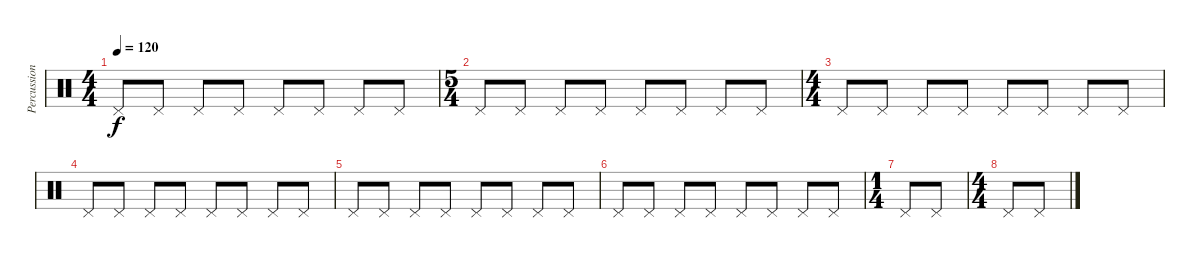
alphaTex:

\track ("Percussions" "Percussion") {instrument percussion}
\staff {score}
\articulation defaults
\ts (4 4)
\tempo 120
\clef neutral
\ks c "Pedal Hi-Hat (hit)".8{dy f} "Pedal Hi-Hat (hit)".8 "Pedal Hi-Hat (hit)".8 "Pedal Hi-Hat (hit)".8 "Pedal Hi-Hat (hit)".8 "Pedal Hi-Hat (hit)".8 "Pedal Hi-Hat (hit)".8 "Pedal Hi-Hat (hit)".8
|
\ts (5 4)
"Pedal Hi-Hat (hit)".8 "Pedal Hi-Hat (hit)".8 "Pedal Hi-Hat (hit)".8 "Pedal Hi-Hat (hit)".8 "Pedal Hi-Hat (hit)".8 "Pedal Hi-Hat (hit)".8 "Pedal Hi-Hat (hit)".8 "Pedal Hi-Hat (hit)".8 |
\ts (4 4)
"Pedal Hi-Hat (hit)".8 "Pedal Hi-Hat (hit)".8 "Pedal Hi-Hat (hit)".8 "Pedal Hi-Hat (hit)".8 "Pedal Hi-Hat (hit)".8 "Pedal Hi-Hat (hit)".8 "Pedal Hi-Hat (hit)".8 "Pedal Hi-Hat (hit)".8 |
"Pedal Hi-Hat (hit)".8 "Pedal Hi-Hat (hit)".8 "Pedal Hi-Hat (hit)".8 "Pedal Hi-Hat (hit)".8 "Pedal Hi-Hat (hit)".8 "Pedal Hi-Hat (hit)".8 "Pedal Hi-Hat (hit)".8 "Pedal Hi-Hat (hit)".8 |
"Pedal Hi-Hat (hit)".8 "Pedal Hi-Hat (hit)".8 "Pedal Hi-Hat (hit)".8 "Pedal Hi-Hat (hit)".8 "Pedal Hi-Hat (hit)".8 "Pedal Hi-Hat (hit)".8 "Pedal Hi-Hat (hit)".8 "Pedal Hi-Hat (hit)".8 |
"Pedal Hi-Hat (hit)".8 "Pedal Hi-Hat (hit)".8 "Pedal Hi-Hat (hit)".8 "Pedal Hi-Hat (hit)".8 "Pedal Hi-Hat (hit)".8 "Pedal Hi-Hat (hit)".8 "Pedal Hi-Hat (hit)".8 "Pedal Hi-Hat (hit)".8 |
\ts (1 4)
"Pedal Hi-Hat (hit)".8 "Pedal Hi-Hat (hit)".8 |
\ts (4 4)
"Pedal Hi-Hat (hit)".8 "Pedal Hi-Hat (hit)".8
